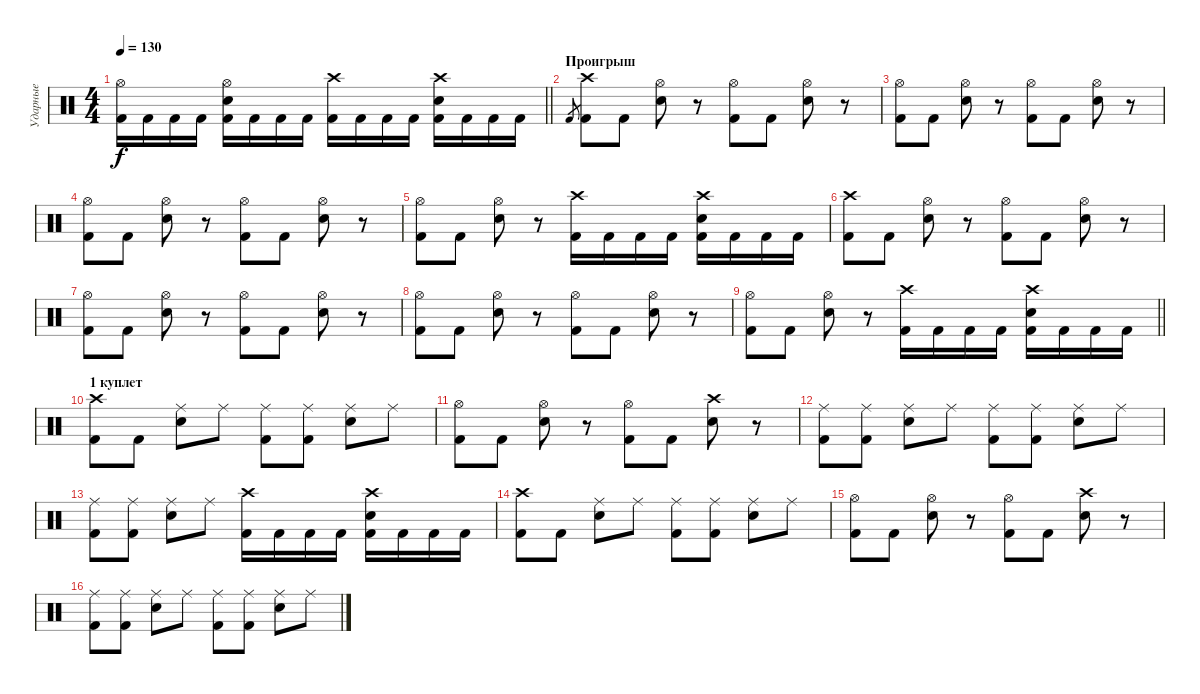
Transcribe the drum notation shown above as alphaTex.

\track ("Ударные" "Ударные") {instrument percussion}
\staff {score}
\articulation defaults
\ts (4 4)
\tempo 130
\clef neutral
\barLineRight lightlight
\ks c
("Hi-Hat (open)" "Kick (hit) 2").16{dy f} "Kick (hit) 2".16 "Kick (hit) 2".16 "Kick (hit) 2".16 ("Hi-Hat (open)" "Snare (hit) 2" "Kick (hit) 2").16 "Kick (hit) 2".16 "Kick (hit) 2".16 "Kick (hit) 2".16 ("Crash high (hit)" "Kick (hit) 2").16 "Kick (hit) 2".16 "Kick (hit) 2".16 "Kick (hit) 2".16 ("Crash high (hit)" "Snare (hit) 2" "Kick (hit) 2").16 "Kick (hit) 2".16 "Kick (hit) 2".16 "Kick (hit) 2".16 |
\section ("" "Проигрыш")
"Kick (hit) 2".8{gr} ("Crash high (hit)" "Kick (hit) 2").8 "Kick (hit) 2".8 ("Hi-Hat (open)" "Snare (hit) 2").8 r.8 ("Hi-Hat (open)" "Kick (hit) 2").8 "Kick (hit) 2".8 ("Hi-Hat (open)" "Snare (hit) 2").8 r.8 |
("Hi-Hat (open)" "Kick (hit) 2").8 "Kick (hit) 2".8 ("Hi-Hat (open)" "Snare (hit) 2").8 r.8 ("Hi-Hat (open)" "Kick (hit) 2").8 "Kick (hit) 2".8 ("Hi-Hat (open)" "Snare (hit) 2").8 r.8 |
("Hi-Hat (open)" "Kick (hit) 2").8 "Kick (hit) 2".8 ("Hi-Hat (open)" "Snare (hit) 2").8 r.8 ("Hi-Hat (open)" "Kick (hit) 2").8 "Kick (hit) 2".8 ("Hi-Hat (open)" "Snare (hit) 2").8 r.8 |
("Hi-Hat (open)" "Kick (hit) 2").8 "Kick (hit) 2".8 ("Hi-Hat (open)" "Snare (hit) 2").8 r.8 ("Crash high (hit)" "Kick (hit) 2").16 "Kick (hit) 2".16 "Kick (hit) 2".16 "Kick (hit) 2".16 ("Crash high (hit)" "Snare (hit) 2" "Kick (hit) 2").16 "Kick (hit) 2".16 "Kick (hit) 2".16 "Kick (hit) 2".16 |
("Crash high (hit)" "Kick (hit) 2").8 "Kick (hit) 2".8 ("Hi-Hat (open)" "Snare (hit) 2").8 r.8 ("Hi-Hat (open)" "Kick (hit) 2").8 "Kick (hit) 2".8 ("Hi-Hat (open)" "Snare (hit) 2").8 r.8 |
("Hi-Hat (open)" "Kick (hit) 2").8 "Kick (hit) 2".8 ("Hi-Hat (open)" "Snare (hit) 2").8 r.8 ("Hi-Hat (open)" "Kick (hit) 2").8 "Kick (hit) 2".8 ("Hi-Hat (open)" "Snare (hit) 2").8 r.8 |
("Hi-Hat (open)" "Kick (hit) 2").8 "Kick (hit) 2".8 ("Hi-Hat (open)" "Snare (hit) 2").8 r.8 ("Hi-Hat (open)" "Kick (hit) 2").8 "Kick (hit) 2".8 ("Hi-Hat (open)" "Snare (hit) 2").8 r.8 |
\barLineRight lightlight
("Hi-Hat (open)" "Kick (hit) 2").8 "Kick (hit) 2".8 ("Hi-Hat (open)" "Snare (hit) 2").8 r.8 ("Crash high (hit)" "Kick (hit) 2").16 "Kick (hit) 2".16 "Kick (hit) 2".16 "Kick (hit) 2".16 ("Crash high (hit)" "Snare (hit) 2" "Kick (hit) 2").16 "Kick (hit) 2".16 "Kick (hit) 2".16 "Kick (hit) 2".16 |
\section ("" "1 куплет")
("Crash high (hit)" "Kick (hit) 2").8 "Kick (hit) 2".8 ("Ride (middle)" "Snare (hit) 2").8 "Ride (middle)".8 ("Ride (middle)" "Kick (hit) 2").8 ("Ride (middle)" "Kick (hit) 2").8 ("Ride (middle)" "Snare (hit) 2").8 "Ride (middle)".8 |
("Hi-Hat (open)" "Kick (hit) 2").8 "Kick (hit) 2".8 ("Hi-Hat (open)" "Snare (hit) 2").8 r.8 ("Hi-Hat (open)" "Kick (hit) 2").8 "Kick (hit) 2".8 ("Crash high (hit)" "Snare (hit) 2").8 r.8 |
("Ride (middle)" "Kick (hit) 2").8 ("Ride (middle)" "Kick (hit) 2").8 ("Ride (middle)" "Snare (hit) 2").8 "Ride (middle)".8 ("Ride (middle)" "Kick (hit) 2").8 ("Ride (middle)" "Kick (hit) 2").8 ("Ride (middle)" "Snare (hit) 2").8 "Ride (middle)".8 |
("Ride (middle)" "Kick (hit) 2").8 ("Ride (middle)" "Kick (hit) 2").8 ("Ride (middle)" "Snare (hit) 2").8 "Ride (middle)".8 ("Crash high (hit)" "Kick (hit) 2").16 "Kick (hit) 2".16 "Kick (hit) 2".16 "Kick (hit) 2".16 ("Crash high (hit)" "Snare (hit) 2" "Kick (hit) 2").16 "Kick (hit) 2".16 "Kick (hit) 2".16 "Kick (hit) 2".16 |
("Crash high (hit)" "Kick (hit) 2").8 "Kick (hit) 2".8 ("Ride (middle)" "Snare (hit) 2").8 "Ride (middle)".8 ("Ride (middle)" "Kick (hit) 2").8 ("Ride (middle)" "Kick (hit) 2").8 ("Ride (middle)" "Snare (hit) 2").8 "Ride (middle)".8 |
("Hi-Hat (open)" "Kick (hit) 2").8 "Kick (hit) 2".8 ("Hi-Hat (open)" "Snare (hit) 2").8 r.8 ("Hi-Hat (open)" "Kick (hit) 2").8 "Kick (hit) 2".8 ("Crash high (hit)" "Snare (hit) 2").8 r.8 |
("Ride (middle)" "Kick (hit) 2").8 ("Ride (middle)" "Kick (hit) 2").8 ("Ride (middle)" "Snare (hit) 2").8 "Ride (middle)".8 ("Ride (middle)" "Kick (hit) 2").8 ("Ride (middle)" "Kick (hit) 2").8 ("Ride (middle)" "Snare (hit) 2").8 "Ride (middle)".8
